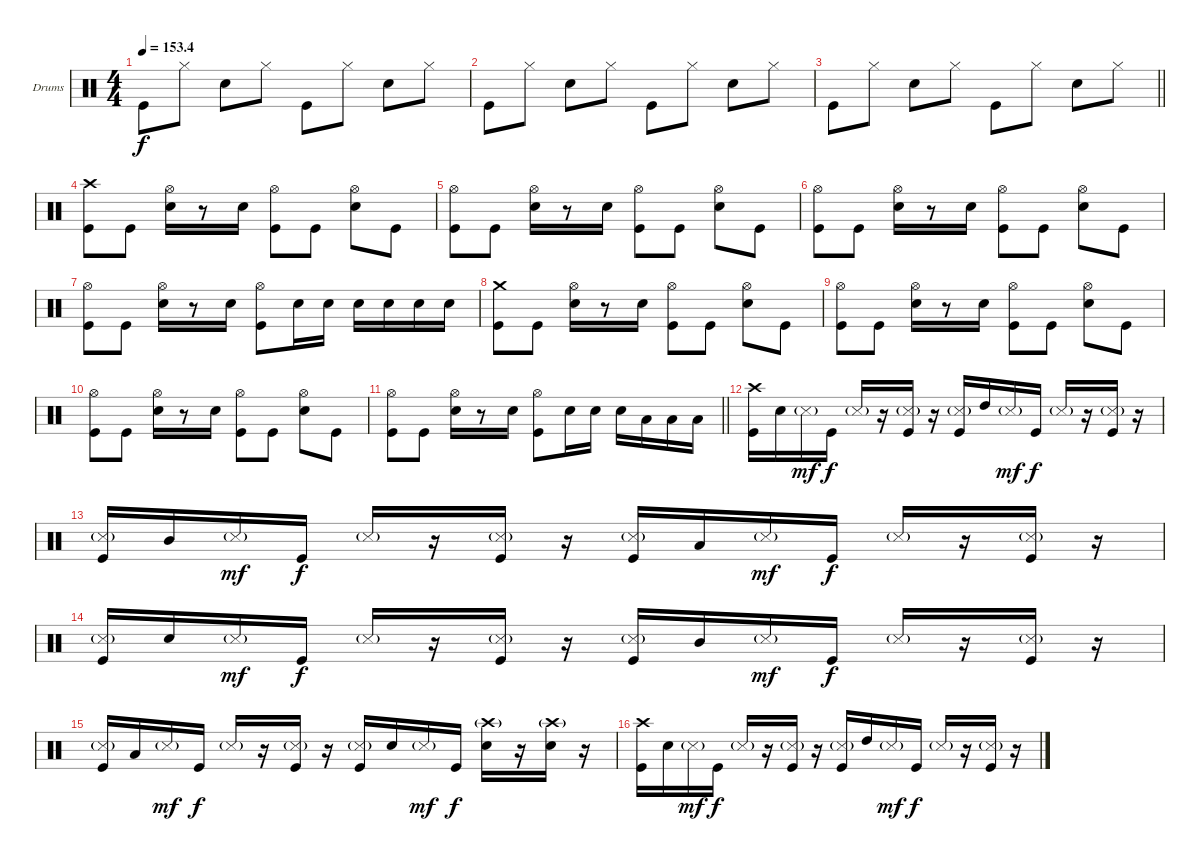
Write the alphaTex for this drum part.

\bracketExtendMode groupsimilarinstruments
\firstSystemTrackNameOrientation horizontal
\otherSystemsTrackNameOrientation horizontal
\track ("Drumkit" "Drums") {instrument percussion}
\staff {score}
\articulation defaults
\ts (4 4)
\tempo
153.4
\accidentals auto
\clef neutral
\ottava regular
\simile none
\ks c "Kick (hit)".8{dy f} "Hi-Hat (closed)".8 "Snare (hit) 2".8 "Hi-Hat (closed)".8 "Kick (hit)".8 "Hi-Hat (closed)".8 "Snare (hit) 2".8 "Hi-Hat (closed)".8
|
"Kick (hit)".8 "Hi-Hat (closed)".8 "Snare (hit) 2".8 "Hi-Hat (closed)".8 "Kick (hit)".8 "Hi-Hat (closed)".8 "Snare (hit) 2".8 "Hi-Hat (closed)".8 |
\barLineRight lightlight "Kick (hit)".8 "Hi-Hat (closed)".8 "Snare (hit) 2".8 "Hi-Hat (closed)".8 "Kick (hit)".8 "Hi-Hat (closed)".8 "Snare (hit) 2".8 "Hi-Hat (closed)".8
|
("Crash high (hit)" "Kick (hit)").8 "Kick (hit)".8 ("Hi-Hat (open)" "Snare (hit) 2").16 r.8 "Snare (hit) 2".16 ("Hi-Hat (open)" "Kick (hit)").8 "Kick (hit)".8 ("Hi-Hat (open)" "Snare (hit) 2").8 "Kick (hit)".8 |
("Hi-Hat (open)" "Kick (hit)").8 "Kick (hit)".8 ("Hi-Hat (open)" "Snare (hit) 2").16 r.8 "Snare (hit) 2".16 ("Hi-Hat (open)" "Kick (hit)").8 "Kick (hit)".8 ("Hi-Hat (open)" "Snare (hit) 2").8 "Kick (hit)".8 |
("Hi-Hat (open)" "Kick (hit)").8 "Kick (hit)".8 ("Hi-Hat (open)" "Snare (hit) 2").16 r.8 "Snare (hit) 2".16 ("Hi-Hat (open)" "Kick (hit)").8 "Kick (hit)".8 ("Hi-Hat (open)" "Snare (hit) 2").8 "Kick (hit)".8 |
("Hi-Hat (open)" "Kick (hit)").8 "Kick (hit)".8 ("Hi-Hat (open)" "Snare (hit) 2").16 r.8 "Snare (hit) 2".16 ("Hi-Hat (open)" "Kick (hit)").8 "Snare (hit) 2".16 "Snare (hit) 2".16 "Snare (hit) 2".16 "Snare (hit) 2".16 "Snare (hit) 2".16 "Snare (hit) 2".16 |
("Crash medium (hit)" "Kick (hit)").8 "Kick (hit)".8 ("Hi-Hat (open)" "Snare (hit) 2").16 r.8 "Snare (hit) 2".16 ("Hi-Hat (open)" "Kick (hit)").8 "Kick (hit)".8 ("Hi-Hat (open)" "Snare (hit) 2").8 "Kick (hit)".8 |
("Hi-Hat (open)" "Kick (hit)").8 "Kick (hit)".8 ("Hi-Hat (open)" "Snare (hit) 2").16 r.8 "Snare (hit) 2".16 ("Hi-Hat (open)" "Kick (hit)").8 "Kick (hit)".8 ("Hi-Hat (open)" "Snare (hit) 2").8 "Kick (hit)".8 |
("Hi-Hat (open)" "Kick (hit)").8 "Kick (hit)".8 ("Hi-Hat (open)" "Snare (hit) 2").16 r.8 "Snare (hit) 2".16 ("Hi-Hat (open)" "Kick (hit)").8 "Kick (hit)".8 ("Hi-Hat (open)" "Snare (hit) 2").8 "Kick (hit)".8 |
\barLineRight lightlight
("Hi-Hat (open)" "Kick (hit)").8 "Kick (hit)".8 ("Hi-Hat (open)" "Snare (hit) 2").16 r.8 "Snare (hit) 2".16 ("Hi-Hat (open)" "Kick (hit)").8 "Snare (hit) 2".16 "Snare (hit) 2".16 "Snare (hit) 2".16 "Low Tom (hit)".16 "Low Tom (hit)".16 "Low Tom (hit)".16 |
("Crash high (hit)" "Kick (hit)").16 "Snare (hit) 2".16 "Snare (side stick) 3"{g}.16{dy mf} "Kick (hit)".16{dy f} "Snare (side stick) 3"{g}.16 r.16 ("Snare (side stick) 3"{g} "Kick (hit)").16 r.16 ("Snare (side stick) 3"{g} "Kick (hit)").16 "High Tom (hit)".16 "Snare (side stick) 3"{g}.16{dy mf} "Kick (hit)".16{dy f} "Snare (side stick) 3"{g}.16 r.16 ("Snare (side stick) 3"{g} "Kick (hit)").16 r.16 |
("Snare (side stick) 3"{g} "Kick (hit)").16 "Mid Tom (hit)".16 "Snare (side stick) 3"{g}.16{dy mf} "Kick (hit)".16{dy f} "Snare (side stick) 3"{g}.16 r.16 ("Snare (side stick) 3"{g} "Kick (hit)").16 r.16 ("Snare (side stick) 3"{g} "Kick (hit)").16 "Low Tom (hit)".16 "Snare (side stick) 3"{g}.16{dy mf} "Kick (hit)".16{dy f} "Snare (side stick) 3"{g}.16 r.16 ("Snare (side stick) 3"{g} "Kick (hit)").16 r.16 |
("Snare (side stick) 3"{g} "Kick (hit)").16 "Snare (hit) 2".16 "Snare (side stick) 3"{g}.16{dy mf} "Kick (hit)".16{dy f} "Snare (side stick) 3"{g}.16 r.16 ("Snare (side stick) 3"{g} "Kick (hit)").16 r.16 ("Snare (side stick) 3"{g} "Kick (hit)").16 "Mid Tom (hit)".16 "Snare (side stick) 3"{g}.16{dy mf} "Kick (hit)".16{dy f} "Snare (side stick) 3"{g}.16 r.16 ("Snare (side stick) 3"{g} "Kick (hit)").16 r.16 |
("Snare (side stick) 3"{g} "Kick (hit)").16 "Low Tom (hit)".16 "Snare (side stick) 3"{g}.16{dy mf} "Kick (hit)".16{dy f} "Snare (side stick) 3"{g}.16 r.16 ("Snare (side stick) 3"{g} "Kick (hit)").16 r.16 ("Snare (side stick) 3"{g} "Kick (hit)").16 "Snare (hit) 2".16 "Snare (side stick) 3"{g}.16{dy mf} "Kick (hit)".16{dy f} ("Crash high (hit)"{g} "Snare (hit) 2").16 r.16 ("Crash high (hit)"{g} "Snare (hit) 2").16 r.16 |
("Crash high (hit)" "Kick (hit)").16 "Snare (hit) 2".16 "Snare (side stick) 3"{g}.16{dy mf} "Kick (hit)".16{dy f} "Snare (side stick) 3"{g}.16 r.16 ("Snare (side stick) 3"{g} "Kick (hit)").16 r.16 ("Snare (side stick) 3"{g} "Kick (hit)").16 "High Tom (hit)".16 "Snare (side stick) 3"{g}.16{dy mf} "Kick (hit)".16{dy f} "Snare (side stick) 3"{g}.16 r.16 ("Snare (side stick) 3"{g} "Kick (hit)").16 r.16
